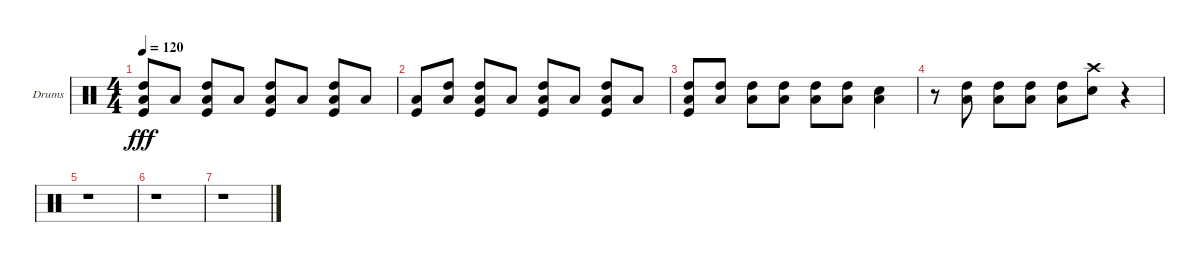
\bracketExtendMode groupsimilarinstruments
\firstSystemTrackNameOrientation horizontal
\otherSystemsTrackNameOrientation horizontal
\track ("Drumkit" "Drums") {instrument percussion}
\staff {score}
\articulation defaults
\ts (4 4)
\tempo 120
\clef neutral
\ks c
("Kick (hit)" "Low Tom (hit)" "High Tom (hit)").8{dy fff} "Low Tom (hit)".8 ("Kick (hit)" "Low Tom (hit)" "High Tom (hit)").8 "Low Tom (hit)".8 ("Kick (hit)" "Low Tom (hit)" "High Tom (hit)").8 "Low Tom (hit)".8 ("Kick (hit)" "Low Tom (hit)" "High Tom (hit)").8 "Low Tom (hit)".8 |
("Low Tom (hit)" "Kick (hit)").8 ("High Tom (hit)" "Low Tom (hit)").8 ("Kick (hit)" "Low Tom (hit)" "High Tom (hit)").8 "Low Tom (hit)".8 ("Low Tom (hit)" "High Tom (hit)" "Kick (hit)").8 "Low Tom (hit)".8 ("High Tom (hit)" "Low Tom (hit)" "Kick (hit)").8 "Low Tom (hit)".8 |
("Low Tom (hit)" "High Tom (hit)" "Kick (hit)").8 ("Low Tom (hit)" "High Tom (hit)").8 ("High Tom (hit)" "Low Tom (hit)").8 ("Low Tom (hit)" "High Tom (hit)").8 ("Low Tom (hit)" "High Tom (hit)").8 ("Low Tom (hit)" "High Tom (hit)").8 ("Low Tom (hit)" "Snare (hit) 2").4 |
r.8 ("Low Tom (hit)" "High Tom (hit)").8 ("High Tom (hit)" "Low Tom (hit)").8 ("High Tom (hit)" "Low Tom (hit)").8 ("High Tom (hit)" "Low Tom (hit)").8 ("Crash high (hit)" "Snare (hit) 2").8 r.4 |
r.1 |
r.1 |
r.1
